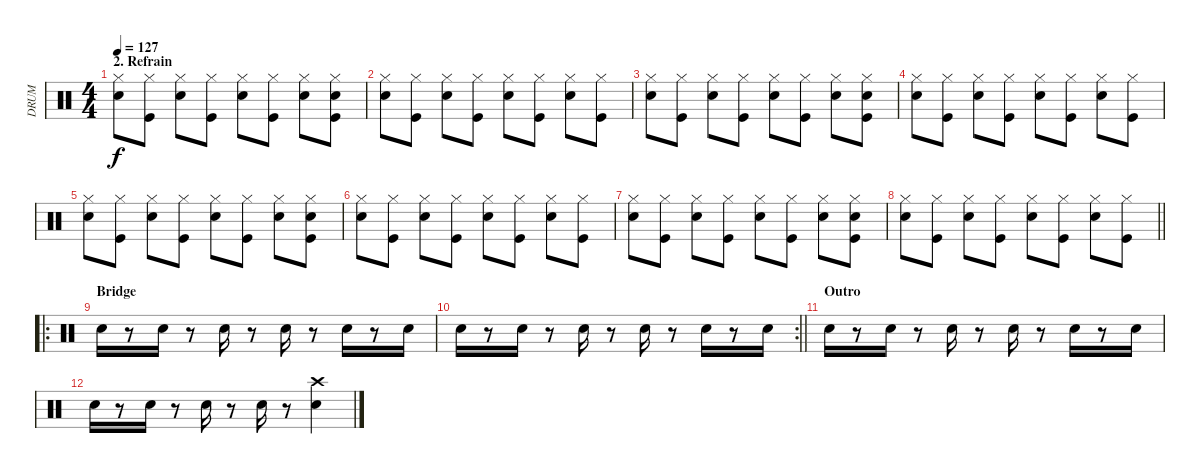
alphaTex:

\track ("DRUM" "DRUM") {instrument percussion}
\staff {score}
\articulation defaults
\ts (4 4)
\section ("" "2. Refrain")
\tempo 127
\clef neutral
\ks c
("Snare (hit) 2" "Hi-Hat (closed)").8{dy f} ("Kick (hit)" "Hi-Hat (closed)").8 ("Snare (hit) 2" "Hi-Hat (closed)").8 ("Kick (hit)" "Hi-Hat (closed)").8 ("Snare (hit) 2" "Hi-Hat (closed)").8 ("Kick (hit)" "Hi-Hat (closed)").8 ("Snare (hit) 2" "Hi-Hat (closed)").8 ("Kick (hit)" "Hi-Hat (closed)" "Snare (hit) 2").8 |
("Snare (hit) 2" "Hi-Hat (closed)").8 ("Kick (hit)" "Hi-Hat (closed)").8 ("Snare (hit) 2" "Hi-Hat (closed)").8 ("Kick (hit)" "Hi-Hat (closed)").8 ("Snare (hit) 2" "Hi-Hat (closed)").8 ("Kick (hit)" "Hi-Hat (closed)").8 ("Snare (hit) 2" "Hi-Hat (closed)").8 ("Kick (hit)" "Hi-Hat (closed)").8 |
("Snare (hit) 2" "Hi-Hat (closed)").8 ("Kick (hit)" "Hi-Hat (closed)").8 ("Snare (hit) 2" "Hi-Hat (closed)").8 ("Kick (hit)" "Hi-Hat (closed)").8 ("Snare (hit) 2" "Hi-Hat (closed)").8 ("Kick (hit)" "Hi-Hat (closed)").8 ("Snare (hit) 2" "Hi-Hat (closed)").8 ("Kick (hit)" "Hi-Hat (closed)" "Snare (hit) 2").8 |
("Snare (hit) 2" "Hi-Hat (closed)").8 ("Kick (hit)" "Hi-Hat (closed)").8 ("Snare (hit) 2" "Hi-Hat (closed)").8 ("Kick (hit)" "Hi-Hat (closed)").8 ("Snare (hit) 2" "Hi-Hat (closed)").8 ("Kick (hit)" "Hi-Hat (closed)").8 ("Snare (hit) 2" "Hi-Hat (closed)").8 ("Kick (hit)" "Hi-Hat (closed)").8 |
("Snare (hit) 2" "Hi-Hat (closed)").8 ("Kick (hit)" "Hi-Hat (closed)").8 ("Snare (hit) 2" "Hi-Hat (closed)").8 ("Kick (hit)" "Hi-Hat (closed)").8 ("Snare (hit) 2" "Hi-Hat (closed)").8 ("Kick (hit)" "Hi-Hat (closed)").8 ("Snare (hit) 2" "Hi-Hat (closed)").8 ("Kick (hit)" "Hi-Hat (closed)" "Snare (hit) 2").8 |
("Snare (hit) 2" "Hi-Hat (closed)").8 ("Kick (hit)" "Hi-Hat (closed)").8 ("Snare (hit) 2" "Hi-Hat (closed)").8 ("Kick (hit)" "Hi-Hat (closed)").8 ("Snare (hit) 2" "Hi-Hat (closed)").8 ("Kick (hit)" "Hi-Hat (closed)").8 ("Snare (hit) 2" "Hi-Hat (closed)").8 ("Kick (hit)" "Hi-Hat (closed)").8 |
("Snare (hit) 2" "Hi-Hat (closed)").8 ("Kick (hit)" "Hi-Hat (closed)").8 ("Snare (hit) 2" "Hi-Hat (closed)").8 ("Kick (hit)" "Hi-Hat (closed)").8 ("Snare (hit) 2" "Hi-Hat (closed)").8 ("Kick (hit)" "Hi-Hat (closed)").8 ("Snare (hit) 2" "Hi-Hat (closed)").8 ("Kick (hit)" "Hi-Hat (closed)" "Snare (hit) 2").8 |
\barLineRight lightlight
("Snare (hit) 2" "Hi-Hat (closed)").8 ("Kick (hit)" "Hi-Hat (closed)").8 ("Snare (hit) 2" "Hi-Hat (closed)").8 ("Kick (hit)" "Hi-Hat (closed)").8 ("Snare (hit) 2" "Hi-Hat (closed)").8 ("Kick (hit)" "Hi-Hat (closed)").8 ("Snare (hit) 2" "Hi-Hat (closed)").8 ("Kick (hit)" "Hi-Hat (closed)").8 |
\ro
\section ("" "Bridge")
"Snare (hit) 2".16 r.8 "Snare (hit) 2".16 r.8 "Snare (hit) 2".16 r.8 "Snare (hit) 2".16 r.8 "Snare (hit) 2".16 r.8 "Snare (hit) 2".16 |
\rc 2
\barLineRight lightlight "Snare (hit) 2".16
r.8 "Snare (hit) 2".16 r.8 "Snare (hit) 2".16 r.8 "Snare (hit) 2".16 r.8 "Snare (hit) 2".16 r.8 "Snare (hit) 2".16 |
\section ("" "Outro")
"Snare (hit) 2".16 r.8 "Snare (hit) 2".16 r.8 "Snare (hit) 2".16 r.8 "Snare (hit) 2".16 r.8 "Snare (hit) 2".16 r.8 "Snare (hit) 2".16 |
"Snare (hit) 2".16 r.8 "Snare (hit) 2".16 r.8 "Snare (hit) 2".16 r.8 "Snare (hit) 2".16 r.8 ("Snare (hit) 2" "Crash high (hit)").4
